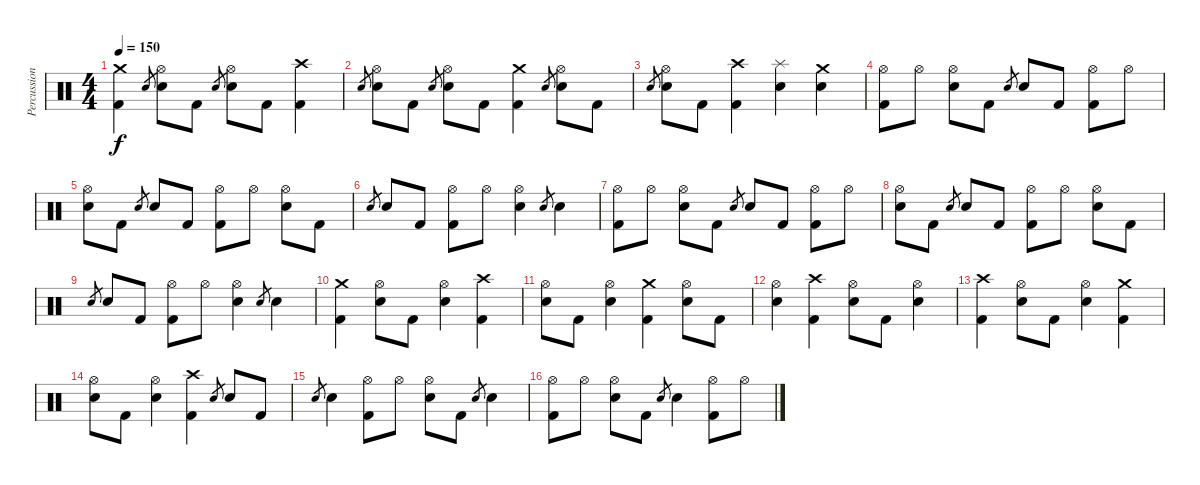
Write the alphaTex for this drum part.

\track ("Percussion" "Percussion") {instrument percussion}
\staff {score}
\articulation defaults
\ts (4 4)
\tempo 150
\clef neutral
\ks c
("Crash medium (hit)" "Kick (hit) 2").4{dy f} "Electric Snare (hit)".8{gr} ("Hi-Hat (open)" "Electric Snare (hit)").8 "Kick (hit) 2".8 "Electric Snare (hit)".8{gr} ("Hi-Hat (open)" "Electric Snare (hit)").8 "Kick (hit) 2".8 ("Crash high (hit)" "Kick (hit) 2").4 |
"Electric Snare (hit)".8{gr} ("Hi-Hat (open)" "Electric Snare (hit)").8 "Kick (hit) 2".8 "Electric Snare (hit)".8{gr} ("Hi-Hat (open)" "Electric Snare (hit)").8 "Kick (hit) 2".8 ("Crash medium (hit)" "Kick (hit) 2").4 "Electric Snare (hit)".8{gr} ("Hi-Hat (open)" "Electric Snare (hit)").8 "Kick (hit) 2".8 |
"Electric Snare (hit)".8{gr} ("Hi-Hat (open)" "Electric Snare (hit)").8 "Kick (hit) 2".8 ("Crash high (hit)" "Kick (hit) 2").4 ("Splash (hit)" "Electric Snare (hit)").4 ("Crash medium (hit)" "Electric Snare (hit)").4 |
("Hi-Hat (open)" "Kick (hit) 2").8 "Hi-Hat (open)".8 ("Hi-Hat (open)" "Electric Snare (hit)").8 "Kick (hit) 2".8 "Electric Snare (hit)".8{gr} "Electric Snare (hit)".8 "Kick (hit) 2".8 ("Hi-Hat (open)" "Kick (hit) 2").8 "Hi-Hat (open)".8 |
("Hi-Hat (open)" "Electric Snare (hit)").8 "Kick (hit) 2".8 "Electric Snare (hit)".8{gr} "Electric Snare (hit)".8 "Kick (hit) 2".8 ("Hi-Hat (open)" "Kick (hit) 2").8 "Hi-Hat (open)".8 ("Hi-Hat (open)" "Electric Snare (hit)").8 "Kick (hit) 2".8 |
"Electric Snare (hit)".8{gr} "Electric Snare (hit)".8 "Kick (hit) 2".8 ("Hi-Hat (open)" "Kick (hit) 2").8 "Hi-Hat (open)".8 ("Hi-Hat (open)" "Electric Snare (hit)").4 "Electric Snare (hit)".8{gr} "Electric Snare (hit)".4 |
("Hi-Hat (open)" "Kick (hit) 2").8 "Hi-Hat (open)".8 ("Hi-Hat (open)" "Electric Snare (hit)").8 "Kick (hit) 2".8 "Electric Snare (hit)".8{gr} "Electric Snare (hit)".8 "Kick (hit) 2".8 ("Hi-Hat (open)" "Kick (hit) 2").8 "Hi-Hat (open)".8 |
("Hi-Hat (open)" "Electric Snare (hit)").8 "Kick (hit) 2".8 "Electric Snare (hit)".8{gr} "Electric Snare (hit)".8 "Kick (hit) 2".8 ("Hi-Hat (open)" "Kick (hit) 2").8 "Hi-Hat (open)".8 ("Hi-Hat (open)" "Electric Snare (hit)").8 "Kick (hit) 2".8 |
"Electric Snare (hit)".8{gr} "Electric Snare (hit)".8 "Kick (hit) 2".8 ("Hi-Hat (open)" "Kick (hit) 2").8 "Hi-Hat (open)".8 ("Hi-Hat (open)" "Electric Snare (hit)").4 "Electric Snare (hit)".8{gr} "Electric Snare (hit)".4 |
("Crash medium (hit)" "Kick (hit) 2").4 ("Hi-Hat (open)" "Electric Snare (hit)").8 "Kick (hit) 2".8 ("Hi-Hat (open)" "Electric Snare (hit)").4 ("Crash high (hit)" "Kick (hit) 2").4 |
("Hi-Hat (open)" "Electric Snare (hit)").8 "Kick (hit) 2".8 ("Hi-Hat (open)" "Electric Snare (hit)").4 ("Crash medium (hit)" "Kick (hit) 2").4 ("Hi-Hat (open)" "Electric Snare (hit)").8 "Kick (hit) 2".8 |
("Hi-Hat (open)" "Electric Snare (hit)").4 ("Crash high (hit)" "Kick (hit) 2").4 ("Hi-Hat (open)" "Electric Snare (hit)").8 "Kick (hit) 2".8 ("Hi-Hat (open)" "Electric Snare (hit)").4 |
("Crash high (hit)" "Kick (hit) 2").4 ("Hi-Hat (open)" "Electric Snare (hit)").8 "Kick (hit) 2".8 ("Hi-Hat (open)" "Electric Snare (hit)").4 ("Crash medium (hit)" "Kick (hit) 2").4 |
("Hi-Hat (open)" "Electric Snare (hit)").8 "Kick (hit) 2".8 ("Hi-Hat (open)" "Electric Snare (hit)").4 ("Crash high (hit)" "Kick (hit) 2").4 "Electric Snare (hit)".8{gr} "Electric Snare (hit)".8 "Kick (hit) 2".8 |
"Electric Snare (hit)".8{gr} "Electric Snare (hit)".4 ("Hi-Hat (open)" "Kick (hit) 2").8 "Hi-Hat (open)".8 ("Hi-Hat (open)" "Electric Snare (hit)").8 "Kick (hit) 2".8 "Electric Snare (hit)".8{gr} "Electric Snare (hit)".4 |
("Hi-Hat (open)" "Kick (hit) 2").8 "Hi-Hat (open)".8 ("Hi-Hat (open)" "Electric Snare (hit)").8 "Kick (hit) 2".8 "Electric Snare (hit)".8{gr} "Electric Snare (hit)".4 ("Hi-Hat (open)" "Kick (hit) 2").8 "Hi-Hat (open)".8
